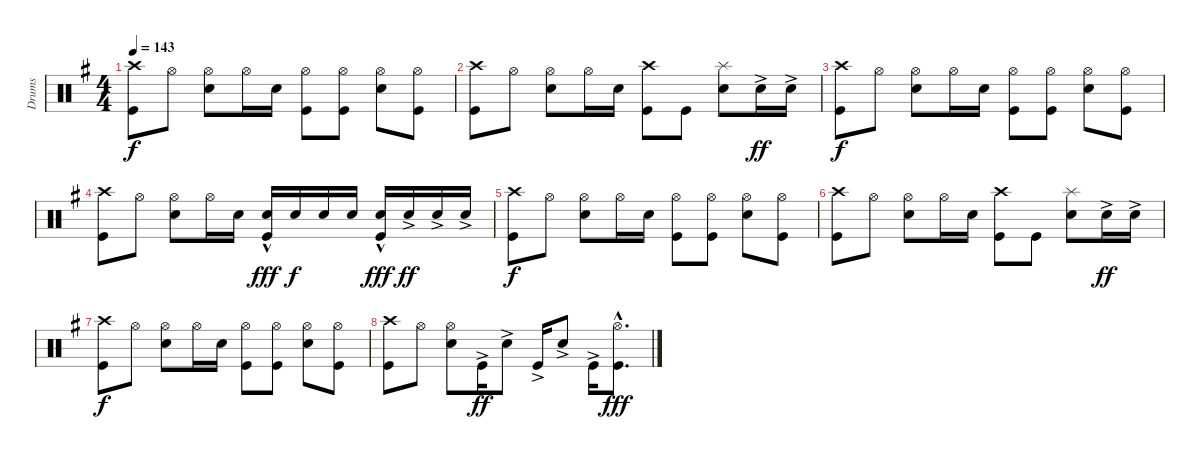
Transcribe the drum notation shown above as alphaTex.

\track ("Drums" "Drums") {instrument percussion}
\staff {score}
\articulation defaults
\ts (4 4)
\tempo 143
\clef neutral
\ks eminor
("Crash high (hit)" "Kick (hit)").8{dy f} "Hi-Hat (open)".8 ("Hi-Hat (open)" "Snare (hit) 2").8 "Hi-Hat (open)".16 "Snare (hit) 2".16 ("Hi-Hat (open)" "Kick (hit)").8 ("Hi-Hat (open)" "Kick (hit)").8 ("Hi-Hat (open)" "Snare (hit) 2").8 ("Hi-Hat (open)" "Kick (hit)").8 |
("Crash high (hit)" "Kick (hit)").8 "Hi-Hat (open)".8 ("Hi-Hat (open)" "Snare (hit) 2").8 "Hi-Hat (open)".16 "Snare (hit) 2".16 ("Crash high (hit)" "Kick (hit)").8 "Kick (hit)".8 ("Splash (hit)" "Snare (hit) 2").8 "Snare (hit) 2"{ac}.16{dy ff} "Snare (hit) 2"{ac}.16 |
("Crash high (hit)" "Kick (hit)").8{dy f} "Hi-Hat (open)".8 ("Hi-Hat (open)" "Snare (hit) 2").8 "Hi-Hat (open)".16 "Snare (hit) 2".16 ("Hi-Hat (open)" "Kick (hit)").8 ("Hi-Hat (open)" "Kick (hit)").8 ("Hi-Hat (open)" "Snare (hit) 2").8 ("Hi-Hat (open)" "Kick (hit)").8 |
("Crash high (hit)" "Kick (hit)").8 "Hi-Hat (open)".8 ("Hi-Hat (open)" "Snare (hit) 2").8 "Hi-Hat (open)".16 "Snare (hit) 2".16 ("Snare (hit) 2"{hac} "Kick (hit)").16{dy fff} "Snare (hit) 2".16{dy f} "Snare (hit) 2".16 "Snare (hit) 2".16 ("Snare (hit) 2"{hac} "Kick (hit)").16{dy fff} "Snare (hit) 2"{ac}.16{dy ff} "Snare (hit) 2"{ac}.16 "Snare (hit) 2"{ac}.16 |
("Crash high (hit)" "Kick (hit)").8{dy f} "Hi-Hat (open)".8 ("Hi-Hat (open)" "Snare (hit) 2").8 "Hi-Hat (open)".16 "Snare (hit) 2".16 ("Hi-Hat (open)" "Kick (hit)").8 ("Hi-Hat (open)" "Kick (hit)").8 ("Hi-Hat (open)" "Snare (hit) 2").8 ("Hi-Hat (open)" "Kick (hit)").8 |
("Crash high (hit)" "Kick (hit)").8 "Hi-Hat (open)".8 ("Hi-Hat (open)" "Snare (hit) 2").8 "Hi-Hat (open)".16 "Snare (hit) 2".16 ("Crash high (hit)" "Kick (hit)").8 "Kick (hit)".8 ("Splash (hit)" "Snare (hit) 2").8 "Snare (hit) 2"{ac}.16{dy ff} "Snare (hit) 2"{ac}.16 |
("Crash high (hit)" "Kick (hit)").8{dy f} "Hi-Hat (open)".8 ("Hi-Hat (open)" "Snare (hit) 2").8 "Hi-Hat (open)".16 "Snare (hit) 2".16 ("Hi-Hat (open)" "Kick (hit)").8 ("Hi-Hat (open)" "Kick (hit)").8 ("Hi-Hat (open)" "Snare (hit) 2").8 ("Hi-Hat (open)" "Kick (hit)").8 |
("Crash high (hit)" "Kick (hit)").8 "Hi-Hat (open)".8 ("Hi-Hat (open)" "Snare (hit) 2").8 "Kick (hit)"{ac}.16{dy ff} "Snare (hit) 2"{ac}.8 "Kick (hit)"{ac}.16 "Snare (hit) 2"{ac}.8 "Kick (hit)"{ac}.16 ("Hi-Hat (open)"{hac} "Kick (hit)"{hac}).8{d dy fff}
